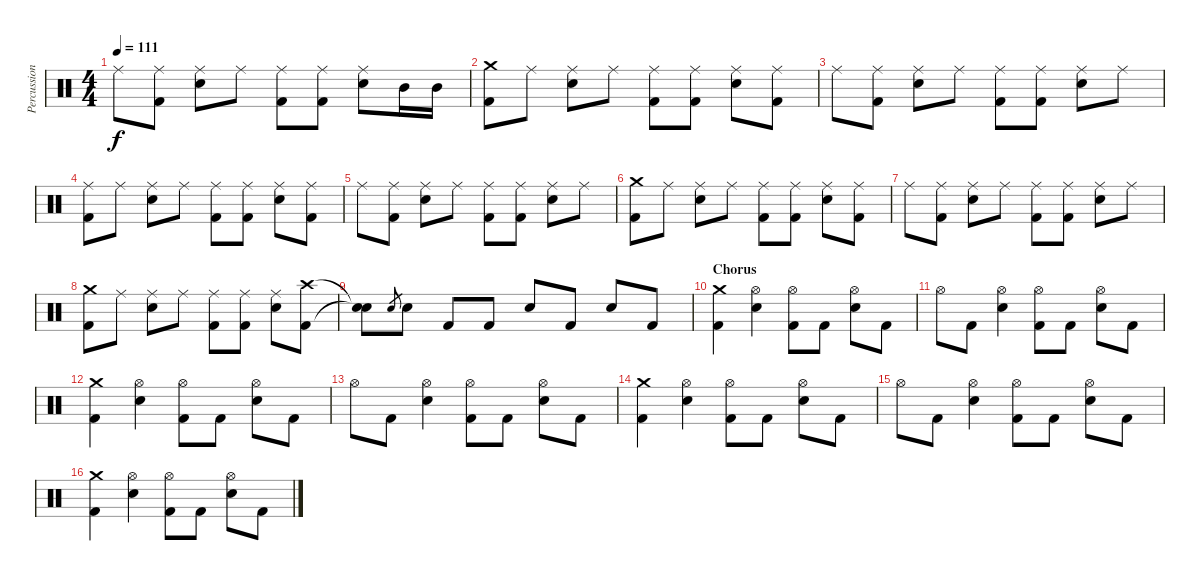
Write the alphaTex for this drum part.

\track ("Percussion" "Percussion") {instrument percussion}
\staff {score}
\articulation defaults
\ts (4 4)
\tempo 111
\clef neutral
\ks c "Ride (middle)".8{dy f}
("Ride (middle)" "Kick (hit) 2").8 ("Ride (middle)" "Electric Snare (hit)").8 "Ride (middle)".8 ("Ride (middle)" "Kick (hit) 2").8 ("Ride (middle)" "Kick (hit) 2").8 ("Ride (middle)" "Electric Snare (hit)").8 "Mid Tom (hit)".16 "Mid Tom (hit)".16 |
("Crash medium (hit)" "Kick (hit) 2").8 "Ride (middle)".8 ("Ride (middle)" "Electric Snare (hit)").8 "Ride (middle)".8 ("Ride (middle)" "Kick (hit) 2").8 ("Ride (middle)" "Kick (hit) 2").8 ("Ride (middle)" "Electric Snare (hit)").8 ("Ride (middle)" "Kick (hit) 2").8 |
"Ride (middle)".8 ("Ride (middle)" "Kick (hit) 2").8 ("Ride (middle)" "Electric Snare (hit)").8 "Ride (middle)".8 ("Ride (middle)" "Kick (hit) 2").8 ("Ride (middle)" "Kick (hit) 2").8 ("Ride (middle)" "Electric Snare (hit)").8 "Ride (middle)".8 |
("Ride (middle)" "Kick (hit) 2").8 "Ride (middle)".8 ("Ride (middle)" "Electric Snare (hit)").8 "Ride (middle)".8 ("Ride (middle)" "Kick (hit) 2").8 ("Ride (middle)" "Kick (hit) 2").8 ("Ride (middle)" "Electric Snare (hit)").8 ("Ride (middle)" "Kick (hit) 2").8 |
"Ride (middle)".8 ("Ride (middle)" "Kick (hit) 2").8 ("Ride (middle)" "Electric Snare (hit)").8 "Ride (middle)".8 ("Ride (middle)" "Kick (hit) 2").8 ("Ride (middle)" "Kick (hit) 2").8 ("Ride (middle)" "Electric Snare (hit)").8 "Ride (middle)".8 |
("Crash medium (hit)" "Kick (hit) 2").8 "Ride (middle)".8 ("Ride (middle)" "Electric Snare (hit)").8 "Ride (middle)".8 ("Ride (middle)" "Kick (hit) 2").8 ("Ride (middle)" "Kick (hit) 2").8 ("Ride (middle)" "Electric Snare (hit)").8 ("Ride (middle)" "Kick (hit) 2").8 |
"Ride (middle)".8 ("Ride (middle)" "Kick (hit) 2").8 ("Ride (middle)" "Electric Snare (hit)").8 "Ride (middle)".8 ("Ride (middle)" "Kick (hit) 2").8 ("Ride (middle)" "Kick (hit) 2").8 ("Ride (middle)" "Electric Snare (hit)").8 "Ride (middle)".8 |
("Crash medium (hit)" "Kick (hit) 2").8 "Ride (middle)".8 ("Ride (middle)" "Electric Snare (hit)").8 "Ride (middle)".8 ("Ride (middle)" "Kick (hit) 2").8 ("Ride (middle)" "Kick (hit) 2").8 ("Ride (middle)" "Electric Snare (hit)").8 ("Crash high (hit)" "Kick (hit) 2").8 |
("Snare (hit)"{t} "Snare (hit)"{t}).8 "Electric Snare (hit)".8{gr} "Electric Snare (hit)".8 "Kick (hit) 2".8 "Kick (hit) 2".8 "Electric Snare (hit)".8 "Kick (hit) 2".8 "Electric Snare (hit)".8 "Kick (hit) 2".8 |
\section ("" "Chorus")
("Crash medium (hit)" "Kick (hit) 2").4 ("Hi-Hat (open)" "Electric Snare (hit)").4 ("Hi-Hat (open)" "Kick (hit) 2").8 "Kick (hit) 2".8 ("Hi-Hat (open)" "Electric Snare (hit)").8 "Kick (hit) 2".8 |
"Hi-Hat (open)".8 "Kick (hit) 2".8 ("Hi-Hat (open)" "Electric Snare (hit)").4 ("Hi-Hat (open)" "Kick (hit) 2").8 "Kick (hit) 2".8 ("Hi-Hat (open)" "Electric Snare (hit)").8 "Kick (hit) 2".8 |
("Crash medium (hit)" "Kick (hit) 2").4 ("Hi-Hat (open)" "Electric Snare (hit)").4 ("Hi-Hat (open)" "Kick (hit) 2").8 "Kick (hit) 2".8 ("Hi-Hat (open)" "Electric Snare (hit)").8 "Kick (hit) 2".8 |
"Hi-Hat (open)".8 "Kick (hit) 2".8 ("Hi-Hat (open)" "Electric Snare (hit)").4 ("Hi-Hat (open)" "Kick (hit) 2").8 "Kick (hit) 2".8 ("Hi-Hat (open)" "Electric Snare (hit)").8 "Kick (hit) 2".8 |
("Crash medium (hit)" "Kick (hit) 2").4 ("Hi-Hat (open)" "Electric Snare (hit)").4 ("Hi-Hat (open)" "Kick (hit) 2").8 "Kick (hit) 2".8 ("Hi-Hat (open)" "Electric Snare (hit)").8 "Kick (hit) 2".8 |
"Hi-Hat (open)".8 "Kick (hit) 2".8 ("Hi-Hat (open)" "Electric Snare (hit)").4 ("Hi-Hat (open)" "Kick (hit) 2").8 "Kick (hit) 2".8 ("Hi-Hat (open)" "Electric Snare (hit)").8 "Kick (hit) 2".8 |
("Crash medium (hit)" "Kick (hit) 2").4 ("Hi-Hat (open)" "Electric Snare (hit)").4 ("Hi-Hat (open)" "Kick (hit) 2").8 "Kick (hit) 2".8 ("Hi-Hat (open)" "Electric Snare (hit)").8 "Kick (hit) 2".8
